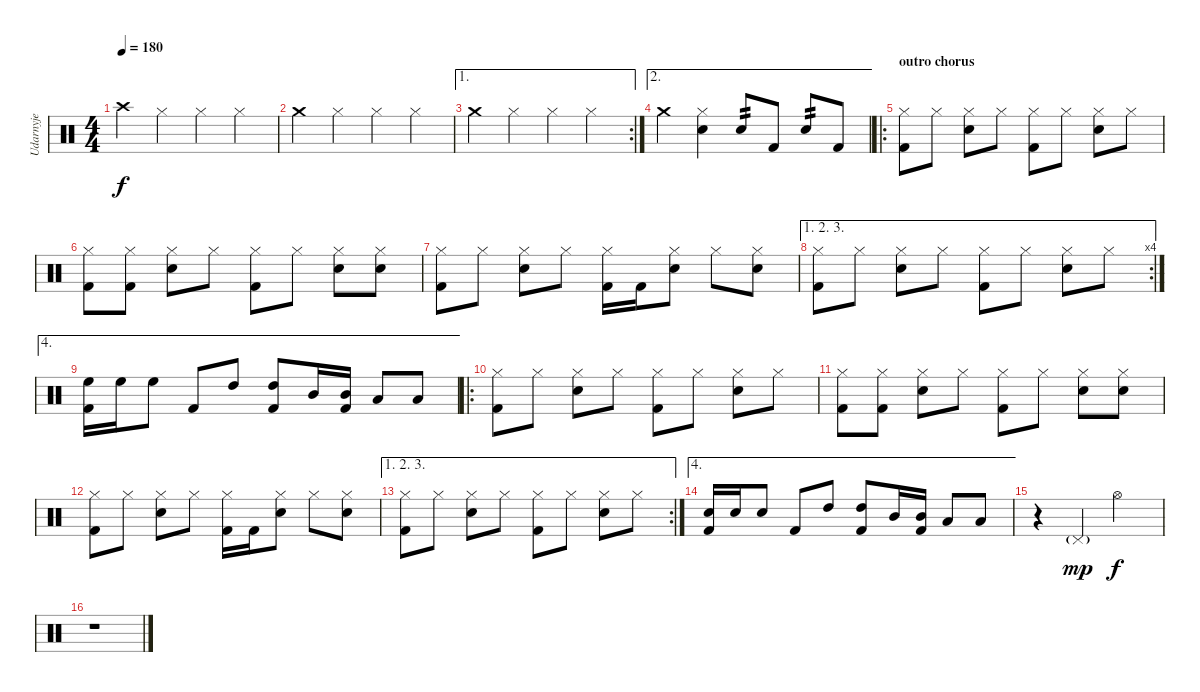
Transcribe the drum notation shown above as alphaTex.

\track ("Udarnyje" "Udarnyje") {instrument percussion}
\staff {score}
\articulation defaults
\ts (4 4)
\tempo 180
\clef neutral
\ks c "Crash high (hit)".4{dy f} "Hi-Hat (closed)".4 "Hi-Hat (closed)".4 "Hi-Hat (closed)".4
|
"Crash medium (hit)".4 "Hi-Hat (closed)".4 "Hi-Hat (closed)".4 "Hi-Hat (closed)".4 |
\ae 1
\rc 2 "Crash medium (hit)".4 "Hi-Hat (closed)".4 "Hi-Hat (closed)".4 "Hi-Hat (closed)".4
|
\ae 2 "Crash medium (hit)".4
("Hi-Hat (closed)" "Electric Snare (hit)").4 "Electric Snare (hit)".8{tp 2} "Kick (hit) 2".8 "Electric Snare (hit)".8{tp 2} "Kick (hit) 2".8 |
\ro
\section ("" "outro chorus")
("Hi-Hat (closed)" "Kick (hit) 2").8 "Hi-Hat (closed)".8 ("Hi-Hat (closed)" "Electric Snare (hit)").8 "Hi-Hat (closed)".8 ("Hi-Hat (closed)" "Kick (hit) 2").8 "Hi-Hat (closed)".8 ("Hi-Hat (closed)" "Electric Snare (hit)").8 "Hi-Hat (closed)".8 |
("Hi-Hat (closed)" "Kick (hit) 2").8 ("Hi-Hat (closed)" "Kick (hit) 2").8 ("Hi-Hat (closed)" "Electric Snare (hit)").8 "Hi-Hat (closed)".8 ("Hi-Hat (closed)" "Kick (hit) 2").8 "Hi-Hat (closed)".8 ("Hi-Hat (closed)" "Electric Snare (hit)").8 ("Hi-Hat (closed)" "Electric Snare (hit)").8 |
("Hi-Hat (closed)" "Kick (hit) 2").8 "Hi-Hat (closed)".8 ("Hi-Hat (closed)" "Electric Snare (hit)").8 "Hi-Hat (closed)".8 ("Hi-Hat (closed)" "Kick (hit) 2").16 "Kick (hit) 2".16 ("Hi-Hat (closed)" "Electric Snare (hit)").8 "Hi-Hat (closed)".8 ("Hi-Hat (closed)" "Electric Snare (hit)").8 |
\ae (1 2 3)
\rc 4
("Hi-Hat (closed)" "Kick (hit) 2").8 "Hi-Hat (closed)".8 ("Hi-Hat (closed)" "Electric Snare (hit)").8 "Hi-Hat (closed)".8 ("Hi-Hat (closed)" "Kick (hit) 2").8 "Hi-Hat (closed)".8 ("Hi-Hat (closed)" "Electric Snare (hit)").8 "Hi-Hat (closed)".8 |
\ae 4
("High Floor Tom (hit)" "Kick (hit) 2").16 "High Floor Tom (hit)".16 "High Floor Tom (hit)".8 "Kick (hit) 2".8 "High Tom (hit)".8 ("High Tom (hit)" "Kick (hit) 2").8 "Mid Tom (hit)".16 ("Mid Tom (hit)" "Kick (hit) 2").16 "Low Tom (hit)".8 "Low Tom (hit)".8 |
\ro
("Hi-Hat (closed)" "Kick (hit) 2").8 "Hi-Hat (closed)".8 ("Hi-Hat (closed)" "Electric Snare (hit)").8 "Hi-Hat (closed)".8 ("Hi-Hat (closed)" "Kick (hit) 2").8 "Hi-Hat (closed)".8 ("Hi-Hat (closed)" "Electric Snare (hit)").8 "Hi-Hat (closed)".8 |
("Hi-Hat (closed)" "Kick (hit) 2").8 ("Hi-Hat (closed)" "Kick (hit) 2").8 ("Hi-Hat (closed)" "Electric Snare (hit)").8 "Hi-Hat (closed)".8 ("Hi-Hat (closed)" "Kick (hit) 2").8 "Hi-Hat (closed)".8 ("Hi-Hat (closed)" "Electric Snare (hit)").8 ("Hi-Hat (closed)" "Electric Snare (hit)").8 |
("Hi-Hat (closed)" "Kick (hit) 2").8 "Hi-Hat (closed)".8 ("Hi-Hat (closed)" "Electric Snare (hit)").8 "Hi-Hat (closed)".8 ("Hi-Hat (closed)" "Kick (hit) 2").16 "Kick (hit) 2".16 ("Hi-Hat (closed)" "Electric Snare (hit)").8 "Hi-Hat (closed)".8 ("Hi-Hat (closed)" "Electric Snare (hit)").8 |
\ae (1 2 3)
\rc 2
("Hi-Hat (closed)" "Kick (hit) 2").8 "Hi-Hat (closed)".8 ("Hi-Hat (closed)" "Electric Snare (hit)").8 "Hi-Hat (closed)".8 ("Hi-Hat (closed)" "Kick (hit) 2").8 "Hi-Hat (closed)".8 ("Hi-Hat (closed)" "Electric Snare (hit)").8 "Hi-Hat (closed)".8 |
\ae 4
("Electric Snare (hit)" "Kick (hit) 2").16 "Electric Snare (hit)".16 "Electric Snare (hit)".8 "Kick (hit) 2".8 "High Tom (hit)".8 ("High Tom (hit)" "Kick (hit) 2").8 "Mid Tom (hit)".16 ("Mid Tom (hit)" "Kick (hit) 2").16 "Low Tom (hit)".8 "Low Tom (hit)".8 |
r.4 "Pedal Hi-Hat (hit)"{g}.4{dy mp} "Hi-Hat (open)".2{dy f} |
r.1
